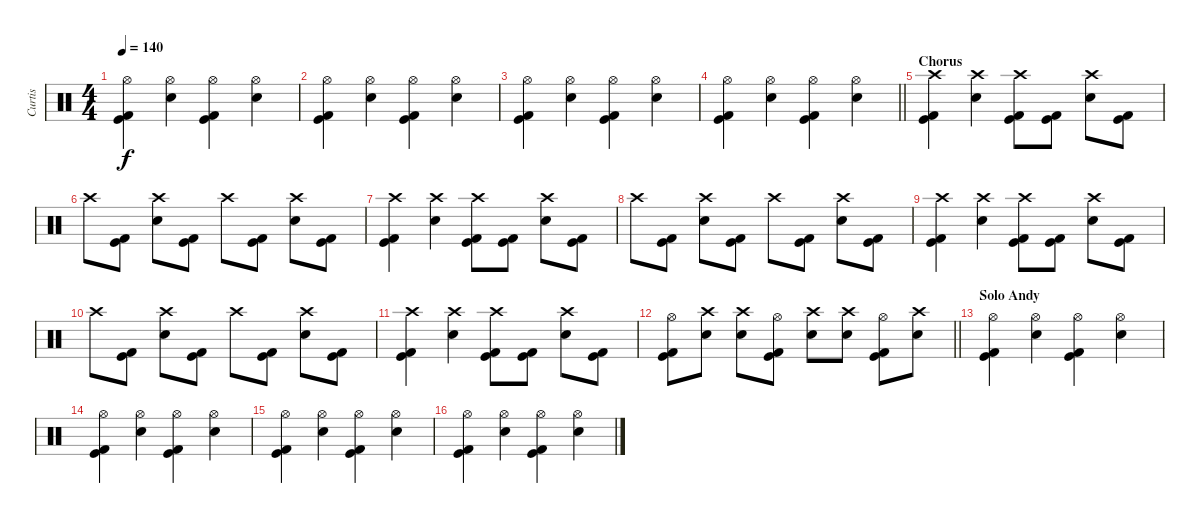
\track ("Curtis" "Curtis") {instrument percussion}
\staff {score}
\articulation defaults
\ts (4 4)
\tempo 140
\clef neutral
\ks c
("Hi-Hat (open)" "Kick (hit)" "Kick (hit) 2").4{dy f} ("Hi-Hat (open)" "Electric Snare (hit)").4 ("Hi-Hat (open)" "Kick (hit)" "Kick (hit) 2").4 ("Hi-Hat (open)" "Electric Snare (hit)").4 |
("Hi-Hat (open)" "Kick (hit)" "Kick (hit) 2").4 ("Hi-Hat (open)" "Electric Snare (hit)").4 ("Hi-Hat (open)" "Kick (hit)" "Kick (hit) 2").4 ("Hi-Hat (open)" "Electric Snare (hit)").4 |
("Hi-Hat (open)" "Kick (hit)" "Kick (hit) 2").4 ("Hi-Hat (open)" "Electric Snare (hit)").4 ("Hi-Hat (open)" "Kick (hit)" "Kick (hit) 2").4 ("Hi-Hat (open)" "Electric Snare (hit)").4 |
\barLineRight lightlight
("Hi-Hat (open)" "Kick (hit)" "Kick (hit) 2").4 ("Hi-Hat (open)" "Electric Snare (hit)").4 ("Hi-Hat (open)" "Kick (hit)" "Kick (hit) 2").4 ("Hi-Hat (open)" "Electric Snare (hit)").4 |
\section ("" "Chorus")
("Crash high (hit)" "Kick (hit) 2" "Kick (hit)").4 ("Crash high (hit)" "Electric Snare (hit)").4 ("Crash high (hit)" "Kick (hit) 2" "Kick (hit)").8 ("Kick (hit) 2" "Kick (hit)").8 ("Crash high (hit)" "Electric Snare (hit)").8 ("Kick (hit) 2" "Kick (hit)").8 |
"Crash high (hit)".8 ("Kick (hit) 2" "Kick (hit)").8 ("Crash high (hit)" "Electric Snare (hit)").8 ("Kick (hit) 2" "Kick (hit)").8 "Crash high (hit)".8 ("Kick (hit) 2" "Kick (hit)").8 ("Crash high (hit)" "Electric Snare (hit)").8 ("Kick (hit) 2" "Kick (hit)").8 |
("Crash high (hit)" "Kick (hit) 2" "Kick (hit)").4 ("Crash high (hit)" "Electric Snare (hit)").4 ("Crash high (hit)" "Kick (hit) 2" "Kick (hit)").8 ("Kick (hit) 2" "Kick (hit)").8 ("Crash high (hit)" "Electric Snare (hit)").8 ("Kick (hit) 2" "Kick (hit)").8 |
"Crash high (hit)".8 ("Kick (hit) 2" "Kick (hit)").8 ("Crash high (hit)" "Electric Snare (hit)").8 ("Kick (hit) 2" "Kick (hit)").8 "Crash high (hit)".8 ("Kick (hit) 2" "Kick (hit)").8 ("Crash high (hit)" "Electric Snare (hit)").8 ("Kick (hit) 2" "Kick (hit)").8 |
("Crash high (hit)" "Kick (hit) 2" "Kick (hit)").4 ("Crash high (hit)" "Electric Snare (hit)").4 ("Crash high (hit)" "Kick (hit) 2" "Kick (hit)").8 ("Kick (hit) 2" "Kick (hit)").8 ("Crash high (hit)" "Electric Snare (hit)").8 ("Kick (hit) 2" "Kick (hit)").8 |
"Crash high (hit)".8 ("Kick (hit) 2" "Kick (hit)").8 ("Crash high (hit)" "Electric Snare (hit)").8 ("Kick (hit) 2" "Kick (hit)").8 "Crash high (hit)".8 ("Kick (hit) 2" "Kick (hit)").8 ("Crash high (hit)" "Electric Snare (hit)").8 ("Kick (hit) 2" "Kick (hit)").8 |
("Crash high (hit)" "Kick (hit) 2" "Kick (hit)").4 ("Crash high (hit)" "Electric Snare (hit)").4 ("Crash high (hit)" "Kick (hit) 2" "Kick (hit)").8 ("Kick (hit) 2" "Kick (hit)").8 ("Crash high (hit)" "Electric Snare (hit)").8 ("Kick (hit) 2" "Kick (hit)").8 |
\barLineRight lightlight
("Hi-Hat (open)" "Kick (hit) 2" "Kick (hit)").8 ("Crash high (hit)" "Electric Snare (hit)").8 ("Crash high (hit)" "Electric Snare (hit)").8 ("Hi-Hat (open)" "Kick (hit) 2" "Kick (hit)").8 ("Crash high (hit)" "Electric Snare (hit)").8 ("Crash high (hit)" "Electric Snare (hit)").8 ("Hi-Hat (open)" "Kick (hit) 2" "Kick (hit)").8 ("Crash high (hit)" "Electric Snare (hit)").8 |
\section ("" "Solo Andy")
("Hi-Hat (open)" "Kick (hit)" "Kick (hit) 2").4 ("Hi-Hat (open)" "Electric Snare (hit)").4 ("Hi-Hat (open)" "Kick (hit)" "Kick (hit) 2").4 ("Hi-Hat (open)" "Electric Snare (hit)").4 |
("Hi-Hat (open)" "Kick (hit)" "Kick (hit) 2").4 ("Hi-Hat (open)" "Electric Snare (hit)").4 ("Hi-Hat (open)" "Kick (hit)" "Kick (hit) 2").4 ("Hi-Hat (open)" "Electric Snare (hit)").4 |
("Hi-Hat (open)" "Kick (hit)" "Kick (hit) 2").4 ("Hi-Hat (open)" "Electric Snare (hit)").4 ("Hi-Hat (open)" "Kick (hit)" "Kick (hit) 2").4 ("Hi-Hat (open)" "Electric Snare (hit)").4 |
("Hi-Hat (open)" "Kick (hit)" "Kick (hit) 2").4 ("Hi-Hat (open)" "Electric Snare (hit)").4 ("Hi-Hat (open)" "Kick (hit)" "Kick (hit) 2").4 ("Hi-Hat (open)" "Electric Snare (hit)").4
